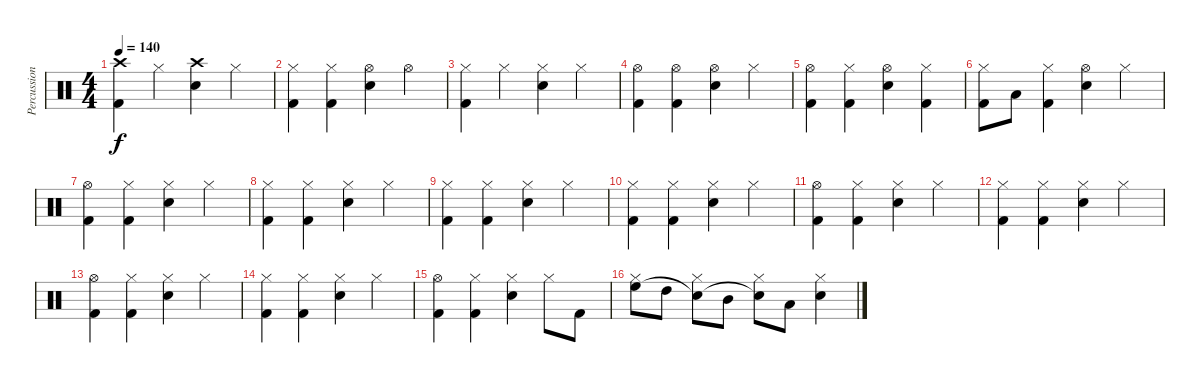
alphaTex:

\track ("Percussion" "Percussion") {instrument percussion}
\staff {score}
\articulation defaults
\ts (4 4)
\tempo 140
\clef neutral
\ks c
("Crash high (hit)" "Kick (hit) 2").4{dy f} "Hi-Hat (closed)".4 ("Crash high (hit)" "Electric Snare (hit)").4 "Hi-Hat (closed)".4 |
("Hi-Hat (closed)" "Kick (hit) 2").4 ("Hi-Hat (closed)" "Kick (hit) 2").4 ("Hi-Hat (open)" "Electric Snare (hit)").4 "Hi-Hat (open)".4 |
("Hi-Hat (closed)" "Kick (hit) 2").4 "Hi-Hat (closed)".4 ("Hi-Hat (closed)" "Electric Snare (hit)").4 "Hi-Hat (closed)".4 |
("Hi-Hat (open)" "Kick (hit) 2").4 ("Hi-Hat (open)" "Kick (hit) 2").4 ("Hi-Hat (open)" "Electric Snare (hit)").4 "Hi-Hat (closed)".4 |
("Hi-Hat (open)" "Kick (hit) 2").4 ("Hi-Hat (closed)" "Kick (hit) 2").4 ("Hi-Hat (open)" "Electric Snare (hit)").4 ("Hi-Hat (closed)" "Kick (hit) 2").4 |
("Hi-Hat (closed)" "Kick (hit) 2").8 "Low Tom (hit)".8 ("Hi-Hat (closed)" "Kick (hit) 2").4 ("Hi-Hat (open)" "Electric Snare (hit)").4 "Hi-Hat (closed)".4 |
("Hi-Hat (open)" "Kick (hit) 2").4 ("Hi-Hat (closed)" "Kick (hit) 2").4 ("Hi-Hat (closed)" "Electric Snare (hit)").4 "Hi-Hat (closed)".4 |
("Hi-Hat (closed)" "Kick (hit) 2").4 ("Hi-Hat (closed)" "Kick (hit) 2").4 ("Hi-Hat (closed)" "Electric Snare (hit)").4 "Hi-Hat (closed)".4 |
("Hi-Hat (closed)" "Kick (hit) 2").4 ("Hi-Hat (closed)" "Kick (hit) 2").4 ("Hi-Hat (closed)" "Electric Snare (hit)").4 "Hi-Hat (closed)".4 |
("Hi-Hat (closed)" "Kick (hit) 2").4 ("Hi-Hat (closed)" "Kick (hit) 2").4 ("Hi-Hat (closed)" "Electric Snare (hit)").4 "Hi-Hat (closed)".4 |
("Hi-Hat (open)" "Kick (hit) 2").4 ("Hi-Hat (closed)" "Kick (hit) 2").4 ("Hi-Hat (closed)" "Electric Snare (hit)").4 "Hi-Hat (closed)".4 |
("Hi-Hat (closed)" "Kick (hit) 2").4 ("Hi-Hat (closed)" "Kick (hit) 2").4 ("Hi-Hat (closed)" "Electric Snare (hit)").4 "Hi-Hat (closed)".4 |
("Hi-Hat (open)" "Kick (hit) 2").4 ("Hi-Hat (closed)" "Kick (hit) 2").4 ("Hi-Hat (closed)" "Electric Snare (hit)").4 "Hi-Hat (closed)".4 |
("Hi-Hat (closed)" "Kick (hit) 2").4 ("Hi-Hat (closed)" "Kick (hit) 2").4 ("Hi-Hat (closed)" "Electric Snare (hit)").4 "Hi-Hat (closed)".4 |
("Hi-Hat (open)" "Kick (hit) 2").4 ("Hi-Hat (closed)" "Kick (hit) 2").4 ("Hi-Hat (closed)" "Electric Snare (hit)").4 "Hi-Hat (closed)".8 "Kick (hit) 2".8 |
("Hi-Hat (closed)" "High Floor Tom (hit)").8 "High Tom (hit)".8 ("Hi-Hat (closed)" "Snare (hit)"{t}).8 "Mid Tom (hit)".8 ("Hi-Hat (closed)" "Snare (hit)"{t}).8 "Low Tom (hit)".8 ("Hi-Hat (closed)" "Electric Snare (hit)").4
